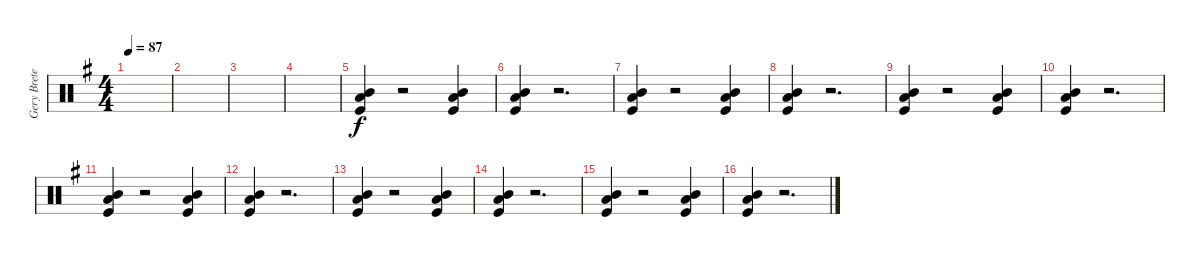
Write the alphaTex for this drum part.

\track ("Gery Bretel" "Gery Brete") {instrument percussion}
\staff {score}
\articulation defaults
\ts (4 4)
\tempo 87
\clef neutral
\ks eminor
|
|
|
|
("Mid Tom (hit)" "Low Floor Tom (hit)" "Kick (hit)").4 r.2 ("Mid Tom (hit)" "Low Floor Tom (hit)" "Kick (hit)").4 |
("Mid Tom (hit)" "Low Floor Tom (hit)" "Kick (hit)").4 r.2{d} |
("Mid Tom (hit)" "Low Floor Tom (hit)" "Kick (hit)").4 r.2 ("Mid Tom (hit)" "Low Floor Tom (hit)" "Kick (hit)").4 |
("Mid Tom (hit)" "Low Floor Tom (hit)" "Kick (hit)").4 r.2{d} |
("Mid Tom (hit)" "Low Floor Tom (hit)" "Kick (hit)").4 r.2 ("Mid Tom (hit)" "Low Floor Tom (hit)" "Kick (hit)").4 |
("Mid Tom (hit)" "Low Floor Tom (hit)" "Kick (hit)").4 r.2{d} |
("Mid Tom (hit)" "Low Floor Tom (hit)" "Kick (hit)").4 r.2 ("Mid Tom (hit)" "Low Floor Tom (hit)" "Kick (hit)").4 |
("Mid Tom (hit)" "Low Floor Tom (hit)" "Kick (hit)").4 r.2{d} |
("Mid Tom (hit)" "Low Floor Tom (hit)" "Kick (hit)").4 r.2 ("Mid Tom (hit)" "Low Floor Tom (hit)" "Kick (hit)").4 |
("Mid Tom (hit)" "Low Floor Tom (hit)" "Kick (hit)").4 r.2{d} |
("Mid Tom (hit)" "Low Floor Tom (hit)" "Kick (hit)").4 r.2 ("Mid Tom (hit)" "Low Floor Tom (hit)" "Kick (hit)").4 |
("Mid Tom (hit)" "Low Floor Tom (hit)" "Kick (hit)").4 r.2{d}
